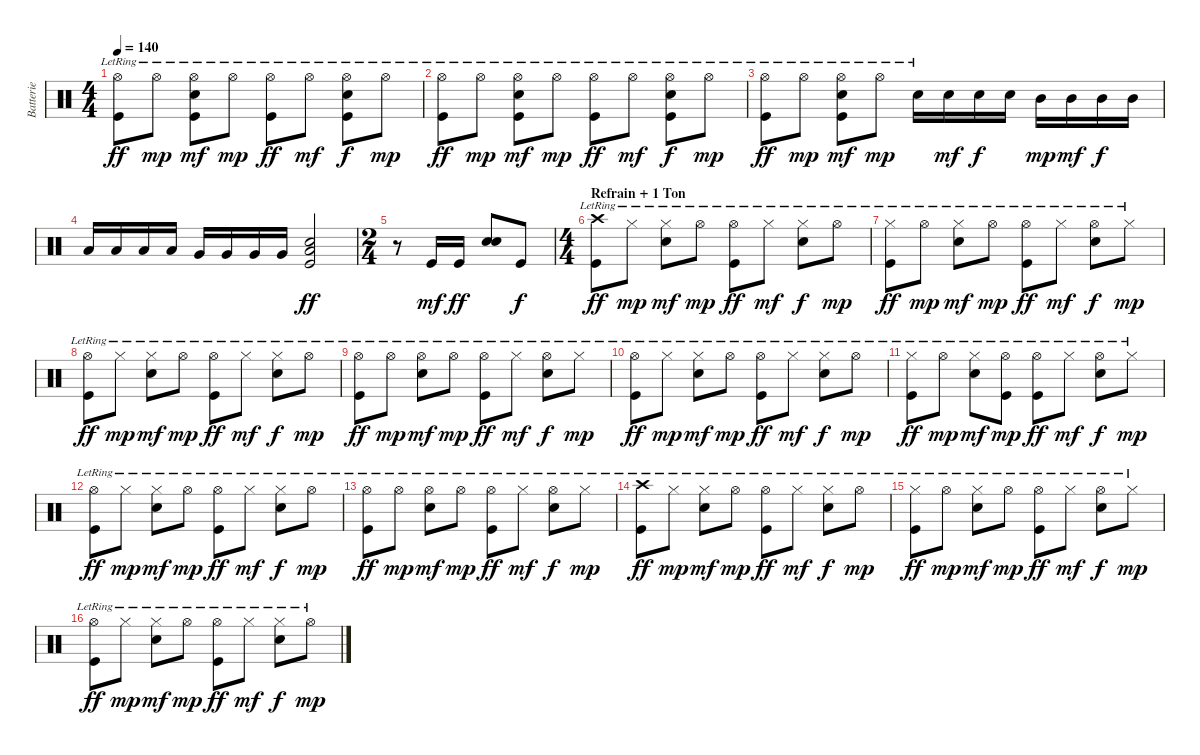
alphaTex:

\track ("Batterie" "Batterie") {instrument percussion}
\staff {score}
\articulation defaults
\ts (4 4)
\tempo 140
\clef neutral
\ks c
("Hi-Hat (open)"{lr} "Kick (hit)"{lr}).8{dy ff} "Hi-Hat (open)"{lr}.8{dy mp} ("Hi-Hat (open)"{lr} "Snare (hit) 2"{lr} "Kick (hit)").8{dy mf} "Hi-Hat (open)"{lr}.8{dy mp} ("Hi-Hat (open)"{lr} "Kick (hit)"{lr}).8{dy ff} "Hi-Hat (open)"{lr}.8{dy mf} ("Hi-Hat (open)"{lr} "Snare (hit) 2"{lr} "Kick (hit)").8{dy f} "Hi-Hat (open)"{lr}.8{dy mp} |
("Hi-Hat (open)"{lr} "Kick (hit)"{lr}).8{dy ff} "Hi-Hat (open)"{lr}.8{dy mp} ("Hi-Hat (open)"{lr} "Snare (hit) 2"{lr} "Kick (hit)").8{dy mf} "Hi-Hat (open)"{lr}.8{dy mp} ("Hi-Hat (open)"{lr} "Kick (hit)"{lr}).8{dy ff} "Hi-Hat (open)"{lr}.8{dy mf} ("Hi-Hat (open)"{lr} "Snare (hit) 2"{lr} "Kick (hit)").8{dy f} "Hi-Hat (open)"{lr}.8{dy mp} |
("Hi-Hat (open)"{lr} "Kick (hit)"{lr}).8{dy ff} "Hi-Hat (open)"{lr}.8{dy mp} ("Hi-Hat (open)"{lr} "Snare (hit) 2"{lr} "Kick (hit)").8{dy mf} "Hi-Hat (open)"{lr}.8{dy mp} "Snare (hit) 2"{lr}.16 "Snare (hit) 2".16{dy mf} "Snare (hit) 2".16{dy f} "Snare (hit) 2".16 "Mid Tom (hit)".16{dy mp} "Mid Tom (hit)".16{dy mf} "Mid Tom (hit)".16{dy f} "Mid Tom (hit)".16 |
"Low Tom (hit)".16 "Low Tom (hit)".16 "Low Tom (hit)".16 "Low Tom (hit)".16 "Very Low Tom (hit)".16 "Very Low Tom (hit)".16 "Very Low Tom (hit)".16 "Very Low Tom (hit)".16 ("Low Floor Tom (hit)" "Snare (hit) 2" "Kick (hit)").2{dy ff} |
\ts (2 4)
r.8 "Kick (hit)".16{dy mf} "Kick (hit)".16{dy ff} ("Snare (hit) 2" "Snare (hit) 2").8{bu 60} "Kick (hit)".8{dy f} |
\ts (4 4)
\section ("" "Refrain + 1 Ton")
("Crash high (hit)"{lr} "Kick (hit)"{lr}).8{dy ff} "Hi-Hat (closed)"{lr}.8{dy mp} ("Hi-Hat (closed)"{lr} "Snare (hit) 2"{lr}).8{dy mf} "Hi-Hat (open)"{lr}.8{dy mp} ("Hi-Hat (open)"{lr} "Kick (hit)"{lr}).8{dy ff} "Hi-Hat (closed)"{lr}.8{dy mf} ("Hi-Hat (closed)"{lr} "Snare (hit) 2"{lr}).8{dy f} "Hi-Hat (open)"{lr}.8{dy mp} |
("Hi-Hat (closed)"{lr} "Kick (hit)"{lr}).8{dy ff} "Hi-Hat (open)"{lr}.8{dy mp} ("Hi-Hat (closed)"{lr} "Snare (hit) 2"{lr}).8{dy mf} "Hi-Hat (open)"{lr}.8{dy mp} ("Hi-Hat (open)"{lr} "Kick (hit)"{lr}).8{dy ff} "Hi-Hat (closed)"{lr}.8{dy mf} ("Hi-Hat (open)"{lr} "Snare (hit) 2"{lr}).8{dy f} "Hi-Hat (closed)"{lr}.8{dy mp} |
("Hi-Hat (open)" "Kick (hit)"{lr}).8{dy ff} "Hi-Hat (closed)"{lr}.8{dy mp} ("Hi-Hat (closed)"{lr} "Snare (hit) 2"{lr}).8{dy mf} "Hi-Hat (open)"{lr}.8{dy mp} ("Hi-Hat (open)"{lr} "Kick (hit)"{lr}).8{dy ff} "Hi-Hat (closed)"{lr}.8{dy mf} ("Hi-Hat (closed)"{lr} "Snare (hit) 2"{lr}).8{dy f} "Hi-Hat (open)"{lr}.8{dy mp} |
("Hi-Hat (open)"{lr} "Kick (hit)"{lr}).8{dy ff} "Hi-Hat (open)"{lr}.8{dy mp} ("Hi-Hat (open)"{lr} "Snare (hit) 2"{lr}).8{dy mf} "Hi-Hat (open)"{lr}.8{dy mp} ("Hi-Hat (open)"{lr} "Kick (hit)"{lr}).8{dy ff} "Hi-Hat (closed)"{lr}.8{dy mf} ("Hi-Hat (open)"{lr} "Snare (hit) 2"{lr}).8{dy f} "Hi-Hat (closed)"{lr}.8{dy mp} |
("Hi-Hat (open)" "Kick (hit)"{lr}).8{dy ff} "Hi-Hat (closed)"{lr}.8{dy mp} ("Hi-Hat (closed)"{lr} "Snare (hit) 2"{lr}).8{dy mf} "Hi-Hat (open)"{lr}.8{dy mp} ("Hi-Hat (open)"{lr} "Kick (hit)"{lr}).8{dy ff} "Hi-Hat (closed)"{lr}.8{dy mf} ("Hi-Hat (closed)"{lr} "Snare (hit) 2"{lr}).8{dy f} "Hi-Hat (open)"{lr}.8{dy mp} |
("Hi-Hat (closed)"{lr} "Kick (hit)"{lr}).8{dy ff} "Hi-Hat (open)"{lr}.8{dy mp} ("Hi-Hat (closed)"{lr} "Snare (hit) 2"{lr}).8{dy mf} ("Hi-Hat (open)"{lr} "Kick (hit)").8{dy mp} ("Hi-Hat (open)"{lr} "Kick (hit)"{lr}).8{dy ff} "Hi-Hat (closed)"{lr}.8{dy mf} ("Hi-Hat (open)"{lr} "Snare (hit) 2"{lr}).8{dy f} "Hi-Hat (closed)"{lr}.8{dy mp} |
("Hi-Hat (open)" "Kick (hit)"{lr}).8{dy ff} "Hi-Hat (closed)"{lr}.8{dy mp} ("Hi-Hat (closed)"{lr} "Snare (hit) 2"{lr}).8{dy mf} "Hi-Hat (open)"{lr}.8{dy mp} ("Hi-Hat (open)"{lr} "Kick (hit)"{lr}).8{dy ff} "Hi-Hat (closed)"{lr}.8{dy mf} ("Hi-Hat (closed)"{lr} "Snare (hit) 2"{lr}).8{dy f} "Hi-Hat (open)"{lr}.8{dy mp} |
("Hi-Hat (open)"{lr} "Kick (hit)"{lr}).8{dy ff} "Hi-Hat (open)"{lr}.8{dy mp} ("Hi-Hat (open)"{lr} "Snare (hit) 2"{lr}).8{dy mf} "Hi-Hat (open)"{lr}.8{dy mp} ("Hi-Hat (open)"{lr} "Kick (hit)"{lr}).8{dy ff} "Hi-Hat (closed)"{lr}.8{dy mf} ("Hi-Hat (open)"{lr} "Snare (hit) 2"{lr}).8{dy f} "Hi-Hat (closed)"{lr}.8{dy mp} |
("Crash high (hit)"{lr} "Kick (hit)"{lr}).8{dy ff} "Hi-Hat (closed)"{lr}.8{dy mp} ("Hi-Hat (closed)"{lr} "Snare (hit) 2"{lr}).8{dy mf} "Hi-Hat (open)"{lr}.8{dy mp} ("Hi-Hat (open)"{lr} "Kick (hit)"{lr}).8{dy ff} "Hi-Hat (closed)"{lr}.8{dy mf} ("Hi-Hat (closed)"{lr} "Snare (hit) 2"{lr}).8{dy f} "Hi-Hat (open)"{lr}.8{dy mp} |
("Hi-Hat (closed)"{lr} "Kick (hit)"{lr}).8{dy ff} "Hi-Hat (open)"{lr}.8{dy mp} ("Hi-Hat (closed)"{lr} "Snare (hit) 2"{lr}).8{dy mf} "Hi-Hat (open)"{lr}.8{dy mp} ("Hi-Hat (open)"{lr} "Kick (hit)"{lr}).8{dy ff} "Hi-Hat (closed)"{lr}.8{dy mf} ("Hi-Hat (open)"{lr} "Snare (hit) 2"{lr}).8{dy f} "Hi-Hat (closed)"{lr}.8{dy mp} |
("Hi-Hat (open)" "Kick (hit)"{lr}).8{dy ff} "Hi-Hat (closed)"{lr}.8{dy mp} ("Hi-Hat (closed)"{lr} "Snare (hit) 2"{lr}).8{dy mf} "Hi-Hat (open)"{lr}.8{dy mp} ("Hi-Hat (open)"{lr} "Kick (hit)"{lr}).8{dy ff} "Hi-Hat (closed)"{lr}.8{dy mf} ("Hi-Hat (closed)"{lr} "Snare (hit) 2"{lr}).8{dy f} "Hi-Hat (open)"{lr}.8{dy mp}
